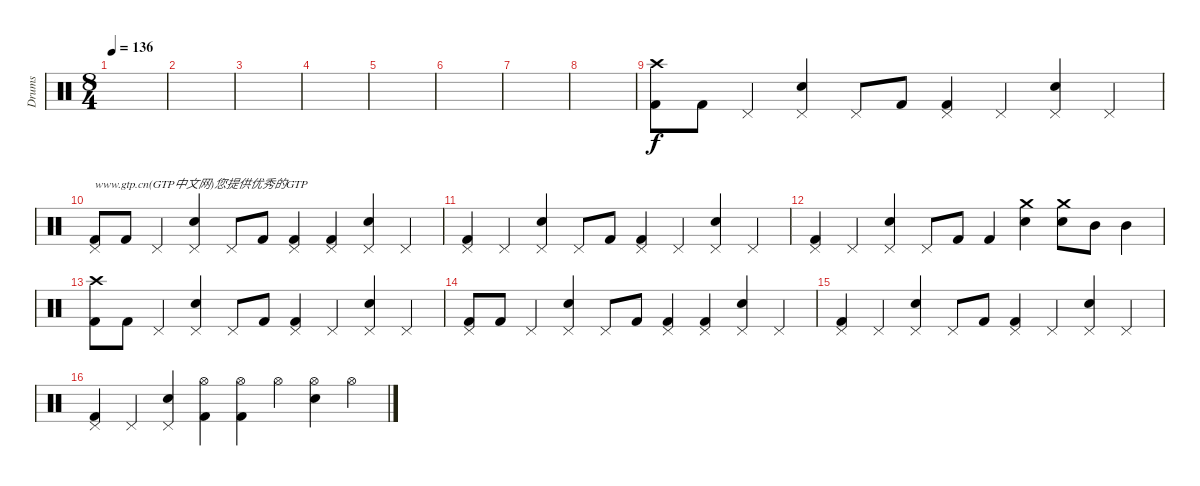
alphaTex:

\track ("Drums" "Drums") {instrument percussion}
\staff {score}
\articulation defaults
\ts (8 4)
\tempo 136
\clef neutral
\ks c
|
|
|
|
|
|
|
|
("Crash high (hit)" "Kick (hit) 2").8 "Kick (hit) 2".8 "Pedal Hi-Hat (hit)".4 ("Pedal Hi-Hat (hit)" "Snare (hit) 2").4 "Pedal Hi-Hat (hit)".8 "Kick (hit) 2".8 ("Pedal Hi-Hat (hit)" "Kick (hit) 2").4 "Pedal Hi-Hat (hit)".4 ("Pedal Hi-Hat (hit)" "Snare (hit) 2").4 "Pedal Hi-Hat (hit)".4 |
("Pedal Hi-Hat (hit)" "Kick (hit) 2").8{txt "www.gtp.cn(GTP中文网)您提供优秀的GTP"} "Kick (hit) 2".8 "Pedal Hi-Hat (hit)".4 ("Pedal Hi-Hat (hit)" "Snare (hit) 2").4 "Pedal Hi-Hat (hit)".8 "Kick (hit) 2".8 ("Pedal Hi-Hat (hit)" "Kick (hit) 2").4 ("Pedal Hi-Hat (hit)" "Kick (hit) 2").4 ("Pedal Hi-Hat (hit)" "Snare (hit) 2").4 "Pedal Hi-Hat (hit)".4 |
("Pedal Hi-Hat (hit)" "Kick (hit) 2").4 "Pedal Hi-Hat (hit)".4 ("Pedal Hi-Hat (hit)" "Snare (hit) 2").4 "Pedal Hi-Hat (hit)".8 "Kick (hit) 2".8 ("Pedal Hi-Hat (hit)" "Kick (hit) 2").4 "Pedal Hi-Hat (hit)".4 ("Pedal Hi-Hat (hit)" "Snare (hit) 2").4 "Pedal Hi-Hat (hit)".4 |
("Pedal Hi-Hat (hit)" "Kick (hit) 2").4 "Pedal Hi-Hat (hit)".4 ("Pedal Hi-Hat (hit)" "Snare (hit) 2").4 "Pedal Hi-Hat (hit)".8 "Kick (hit) 2".8 "Kick (hit) 2".4 ("Crash medium (hit)" "Snare (hit) 2").4 ("Crash medium (hit)" "Snare (hit) 2").8 "Mid Tom (hit)".8 "Mid Tom (hit)".4 |
("Crash high (hit)" "Kick (hit) 2").8 "Kick (hit) 2".8 "Pedal Hi-Hat (hit)".4 ("Pedal Hi-Hat (hit)" "Snare (hit) 2").4 "Pedal Hi-Hat (hit)".8 "Kick (hit) 2".8 ("Pedal Hi-Hat (hit)" "Kick (hit) 2").4 "Pedal Hi-Hat (hit)".4 ("Pedal Hi-Hat (hit)" "Snare (hit) 2").4 "Pedal Hi-Hat (hit)".4 |
("Pedal Hi-Hat (hit)" "Kick (hit) 2").8 "Kick (hit) 2".8 "Pedal Hi-Hat (hit)".4 ("Pedal Hi-Hat (hit)" "Snare (hit) 2").4 "Pedal Hi-Hat (hit)".8 "Kick (hit) 2".8 ("Pedal Hi-Hat (hit)" "Kick (hit) 2").4 ("Pedal Hi-Hat (hit)" "Kick (hit) 2").4 ("Pedal Hi-Hat (hit)" "Snare (hit) 2").4 "Pedal Hi-Hat (hit)".4 |
("Pedal Hi-Hat (hit)" "Kick (hit) 2").4 "Pedal Hi-Hat (hit)".4 ("Pedal Hi-Hat (hit)" "Snare (hit) 2").4 "Pedal Hi-Hat (hit)".8 "Kick (hit) 2".8 ("Pedal Hi-Hat (hit)" "Kick (hit) 2").4 "Pedal Hi-Hat (hit)".4 ("Pedal Hi-Hat (hit)" "Snare (hit) 2").4 "Pedal Hi-Hat (hit)".4 |
("Pedal Hi-Hat (hit)" "Kick (hit) 2").4 "Pedal Hi-Hat (hit)".4 ("Pedal Hi-Hat (hit)" "Snare (hit) 2").4 ("Hi-Hat (open)" "Kick (hit) 2").4 ("Hi-Hat (open)" "Kick (hit) 2").4 "Hi-Hat (open)".4 ("Hi-Hat (open)" "Snare (hit) 2").4 "Hi-Hat (open)".4
